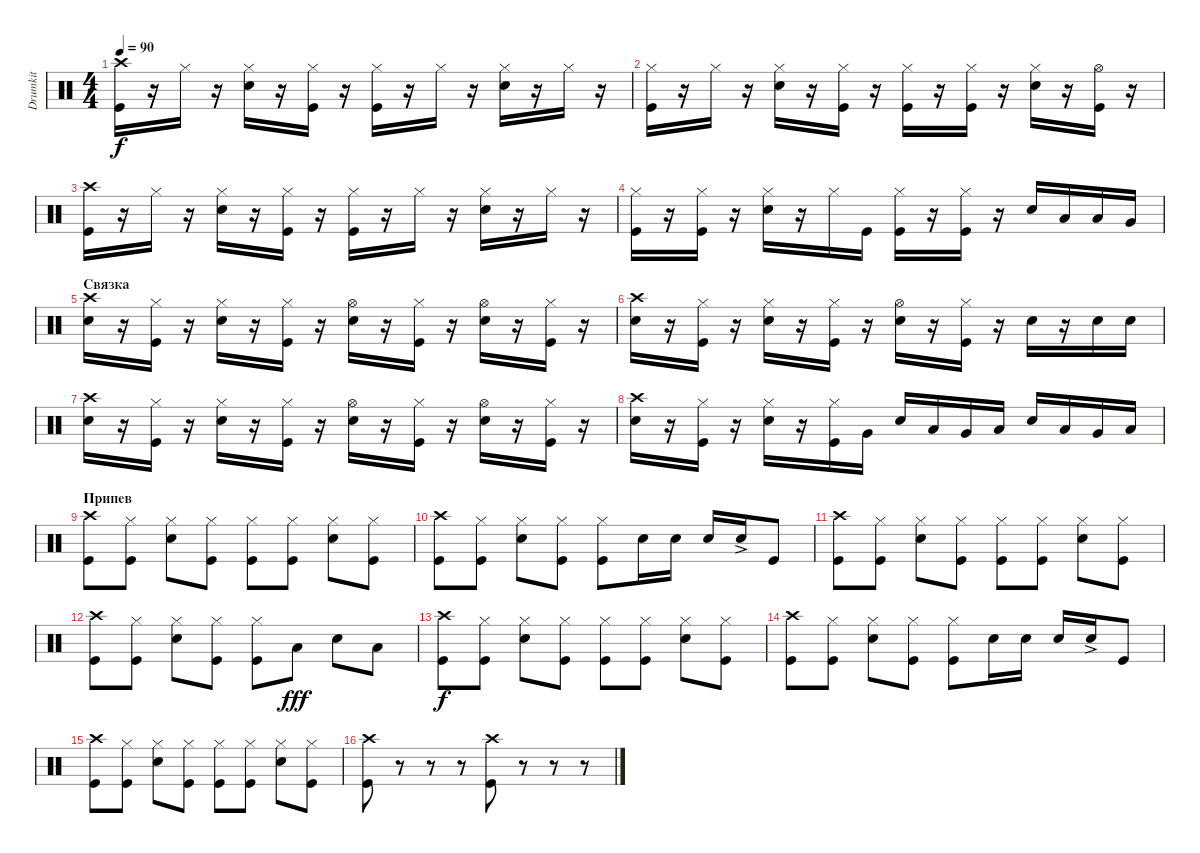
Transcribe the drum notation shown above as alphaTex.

\track ("Drumkit" "Drumkit") {instrument percussion}
\staff {score}
\articulation defaults
\ts (4 4)
\tempo 90
\clef neutral
\ks c
("Kick (hit)" "Crash high (hit)").16{dy f} r.16 "Hi-Hat (closed)".16 r.16 ("Hi-Hat (closed)" "Snare (hit) 2").16 r.16 ("Hi-Hat (closed)" "Kick (hit)").16 r.16 ("Hi-Hat (closed)" "Kick (hit)").16 r.16 "Hi-Hat (closed)".16 r.16 ("Hi-Hat (closed)" "Snare (hit) 2").16 r.16 "Hi-Hat (closed)".16 r.16 |
("Hi-Hat (closed)" "Kick (hit)").16 r.16 "Hi-Hat (closed)".16 r.16 ("Hi-Hat (closed)" "Snare (hit) 2").16 r.16 ("Hi-Hat (closed)" "Kick (hit)").16 r.16 ("Hi-Hat (closed)" "Kick (hit)").16 r.16 ("Hi-Hat (closed)" "Kick (hit)").16 r.16 ("Hi-Hat (closed)" "Snare (hit) 2").16 r.16 ("Hi-Hat (open)" "Kick (hit)").16 r.16 |
("Kick (hit)" "Crash high (hit)").16 r.16 "Hi-Hat (closed)".16 r.16 ("Hi-Hat (closed)" "Snare (hit) 2").16 r.16 ("Hi-Hat (closed)" "Kick (hit)").16 r.16 ("Hi-Hat (closed)" "Kick (hit)").16 r.16 "Hi-Hat (closed)".16 r.16 ("Hi-Hat (closed)" "Snare (hit) 2").16 r.16 "Hi-Hat (closed)".16 r.16 |
("Hi-Hat (closed)" "Kick (hit)").16 r.16 ("Hi-Hat (closed)" "Kick (hit)").16 r.16 ("Hi-Hat (closed)" "Snare (hit) 2").16 r.16 "Hi-Hat (closed)".16 "Kick (hit)".16 ("Hi-Hat (closed)" "Kick (hit)").16 r.16 ("Hi-Hat (closed)" "Kick (hit)").16 r.16 "Snare (hit) 2".16 "Low Tom (hit)".16 "Low Floor Tom (hit)".16 "Very Low Tom (hit)".16 |
\section ("" "Связка")
("Crash high (hit)" "Snare (hit) 2").16 r.16 ("Hi-Hat (closed)" "Kick (hit)").16 r.16 ("Hi-Hat (closed)" "Snare (hit) 2").16 r.16 ("Hi-Hat (closed)" "Kick (hit)").16 r.16 ("Hi-Hat (open)" "Snare (hit) 2").16 r.16 ("Hi-Hat (closed)" "Kick (hit)").16 r.16 ("Hi-Hat (open)" "Snare (hit) 2").16 r.16 ("Hi-Hat (closed)" "Kick (hit)").16 r.16 |
("Crash high (hit)" "Snare (hit) 2").16 r.16 ("Hi-Hat (closed)" "Kick (hit)").16 r.16 ("Hi-Hat (closed)" "Snare (hit) 2").16 r.16 ("Hi-Hat (closed)" "Kick (hit)").16 r.16 ("Hi-Hat (open)" "Snare (hit) 2").16 r.16 ("Hi-Hat (closed)" "Kick (hit)").16 r.16 "Snare (hit) 2".16 r.16 "Snare (hit) 2".16 "Snare (hit) 2".16 |
("Crash high (hit)" "Snare (hit) 2").16 r.16 ("Hi-Hat (closed)" "Kick (hit)").16 r.16 ("Hi-Hat (closed)" "Snare (hit) 2").16 r.16 ("Hi-Hat (closed)" "Kick (hit)").16 r.16 ("Hi-Hat (open)" "Snare (hit) 2").16 r.16 ("Hi-Hat (closed)" "Kick (hit)").16 r.16 ("Hi-Hat (open)" "Snare (hit) 2").16 r.16 ("Hi-Hat (closed)" "Kick (hit)").16 r.16 |
("Crash high (hit)" "Snare (hit) 2").16 r.16 ("Hi-Hat (closed)" "Kick (hit)").16 r.16 ("Hi-Hat (closed)" "Snare (hit) 2").16 r.16 ("Hi-Hat (closed)" "Kick (hit)").16 "Very Low Tom (hit)".16 "Snare (hit) 2".16 "Low Tom (hit)".16 "Very Low Tom (hit)".16 "Low Tom (hit)".16 "Snare (hit) 2".16 "Low Tom (hit)".16 "Very Low Tom (hit)".16 "Low Floor Tom (hit)".16 |
\section ("" "Припев")
("Kick (hit)" "Crash high (hit)").8 ("Kick (hit)" "Hi-Hat (closed)").8 ("Snare (hit) 2" "Hi-Hat (closed)").8 ("Kick (hit)" "Hi-Hat (closed)").8 ("Kick (hit)" "Hi-Hat (closed)").8 ("Kick (hit)" "Hi-Hat (closed)").8 ("Snare (hit) 2" "Hi-Hat (closed)").8 ("Kick (hit)" "Hi-Hat (closed)").8 |
("Kick (hit)" "Crash high (hit)").8 ("Kick (hit)" "Hi-Hat (closed)").8 ("Snare (hit) 2" "Hi-Hat (closed)").8 ("Kick (hit)" "Hi-Hat (closed)").8 ("Kick (hit)" "Hi-Hat (closed)").8 "Snare (hit) 2".16 "Snare (hit) 2".16 "Snare (hit) 2".16 "Snare (hit) 2"{ac}.16 "Kick (hit)".8 |
("Kick (hit)" "Crash high (hit)").8 ("Kick (hit)" "Hi-Hat (closed)").8 ("Snare (hit) 2" "Hi-Hat (closed)").8 ("Kick (hit)" "Hi-Hat (closed)").8 ("Kick (hit)" "Hi-Hat (closed)").8 ("Kick (hit)" "Hi-Hat (closed)").8 ("Snare (hit) 2" "Hi-Hat (closed)").8 ("Kick (hit)" "Hi-Hat (closed)").8 |
("Kick (hit)" "Crash high (hit)").8 ("Kick (hit)" "Hi-Hat (closed)").8 ("Snare (hit) 2" "Hi-Hat (closed)").8 ("Kick (hit)" "Hi-Hat (closed)").8 ("Kick (hit)" "Hi-Hat (closed)").8 "Low Tom (hit)".8{dy fff} "Snare (hit) 2".8 "Low Tom (hit)".8 |
("Kick (hit)" "Crash high (hit)").8{dy f} ("Kick (hit)" "Hi-Hat (closed)").8 ("Snare (hit) 2" "Hi-Hat (closed)").8 ("Kick (hit)" "Hi-Hat (closed)").8 ("Kick (hit)" "Hi-Hat (closed)").8 ("Kick (hit)" "Hi-Hat (closed)").8 ("Snare (hit) 2" "Hi-Hat (closed)").8 ("Kick (hit)" "Hi-Hat (closed)").8 |
("Kick (hit)" "Crash high (hit)").8 ("Kick (hit)" "Hi-Hat (closed)").8 ("Snare (hit) 2" "Hi-Hat (closed)").8 ("Kick (hit)" "Hi-Hat (closed)").8 ("Kick (hit)" "Hi-Hat (closed)").8 "Snare (hit) 2".16 "Snare (hit) 2".16 "Snare (hit) 2".16 "Snare (hit) 2"{ac}.16 "Kick (hit)".8 |
("Kick (hit)" "Crash high (hit)").8 ("Kick (hit)" "Hi-Hat (closed)").8 ("Snare (hit) 2" "Hi-Hat (closed)").8 ("Kick (hit)" "Hi-Hat (closed)").8 ("Kick (hit)" "Hi-Hat (closed)").8 ("Kick (hit)" "Hi-Hat (closed)").8 ("Snare (hit) 2" "Hi-Hat (closed)").8 ("Kick (hit)" "Hi-Hat (closed)").8 |
("Kick (hit)" "Crash high (hit)").8 r.8 r.8 r.8 ("Kick (hit)" "Crash high (hit)").8 r.8 r.8 r.8
